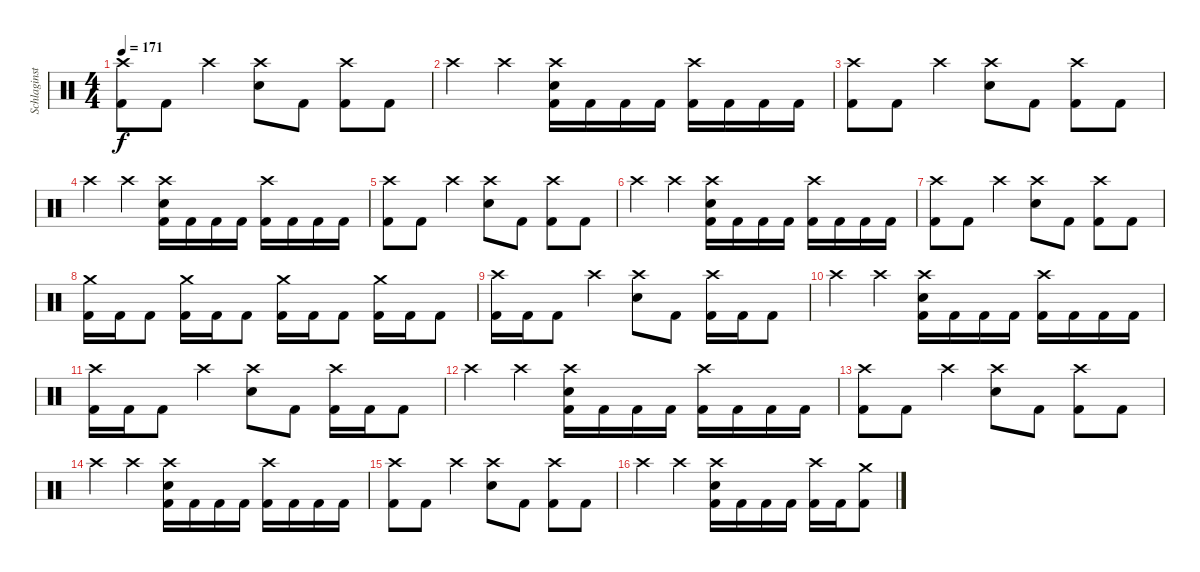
\track ("Schlaginstrumente - Auswahl" "Schlaginst") {instrument percussion}
\staff {score}
\articulation defaults
\ts (4 4)
\tempo 171
\clef neutral
\ks c
("Crash high (hit)" "Kick (hit) 2").8{dy f} "Kick (hit) 2".8 "Crash high (hit)".4 ("Crash high (hit)" "Snare (hit) 2").8 "Kick (hit) 2".8 ("Crash high (hit)" "Kick (hit) 2").8 "Kick (hit) 2".8 |
"Crash high (hit)".4 "Crash high (hit)".4 ("Crash high (hit)" "Snare (hit) 2" "Kick (hit) 2").16 "Kick (hit) 2".16 "Kick (hit) 2".16 "Kick (hit) 2".16 ("Crash high (hit)" "Kick (hit) 2").16 "Kick (hit) 2".16 "Kick (hit) 2".16 "Kick (hit) 2".16 |
("Crash high (hit)" "Kick (hit) 2").8 "Kick (hit) 2".8 "Crash high (hit)".4 ("Crash high (hit)" "Snare (hit) 2").8 "Kick (hit) 2".8 ("Crash high (hit)" "Kick (hit) 2").8 "Kick (hit) 2".8 |
"Crash high (hit)".4 "Crash high (hit)".4 ("Crash high (hit)" "Snare (hit) 2" "Kick (hit) 2").16 "Kick (hit) 2".16 "Kick (hit) 2".16 "Kick (hit) 2".16 ("Crash high (hit)" "Kick (hit) 2").16 "Kick (hit) 2".16 "Kick (hit) 2".16 "Kick (hit) 2".16 |
("Crash high (hit)" "Kick (hit) 2").8 "Kick (hit) 2".8 "Crash high (hit)".4 ("Crash high (hit)" "Snare (hit) 2").8 "Kick (hit) 2".8 ("Crash high (hit)" "Kick (hit) 2").8 "Kick (hit) 2".8 |
"Crash high (hit)".4 "Crash high (hit)".4 ("Crash high (hit)" "Snare (hit) 2" "Kick (hit) 2").16 "Kick (hit) 2".16 "Kick (hit) 2".16 "Kick (hit) 2".16 ("Crash high (hit)" "Kick (hit) 2").16 "Kick (hit) 2".16 "Kick (hit) 2".16 "Kick (hit) 2".16 |
("Crash high (hit)" "Kick (hit) 2").8 "Kick (hit) 2".8 "Crash high (hit)".4 ("Crash high (hit)" "Snare (hit) 2").8 "Kick (hit) 2".8 ("Crash high (hit)" "Kick (hit) 2").8 "Kick (hit) 2".8 |
("Crash medium (hit)" "Kick (hit) 2").16 "Kick (hit) 2".16 "Kick (hit) 2".8 ("Crash medium (hit)" "Kick (hit) 2").16 "Kick (hit) 2".16 "Kick (hit) 2".8 ("Crash medium (hit)" "Kick (hit) 2").16 "Kick (hit) 2".16 "Kick (hit) 2".8 ("Crash medium (hit)" "Kick (hit) 2").16 "Kick (hit) 2".16 "Kick (hit) 2".8 |
("Crash high (hit)" "Kick (hit) 2").16 "Kick (hit) 2".16 "Kick (hit) 2".8 "Crash high (hit)".4 ("Crash high (hit)" "Snare (hit) 2").8 "Kick (hit) 2".8 ("Crash high (hit)" "Kick (hit) 2").16 "Kick (hit) 2".16 "Kick (hit) 2".8 |
"Crash high (hit)".4 "Crash high (hit)".4 ("Crash high (hit)" "Snare (hit) 2" "Kick (hit) 2").16 "Kick (hit) 2".16 "Kick (hit) 2".16 "Kick (hit) 2".16 ("Crash high (hit)" "Kick (hit) 2").16 "Kick (hit) 2".16 "Kick (hit) 2".16 "Kick (hit) 2".16 |
("Crash high (hit)" "Kick (hit) 2").16 "Kick (hit) 2".16 "Kick (hit) 2".8 "Crash high (hit)".4 ("Crash high (hit)" "Snare (hit) 2").8 "Kick (hit) 2".8 ("Crash high (hit)" "Kick (hit) 2").16 "Kick (hit) 2".16 "Kick (hit) 2".8 |
"Crash high (hit)".4 "Crash high (hit)".4 ("Crash high (hit)" "Snare (hit) 2" "Kick (hit) 2").16 "Kick (hit) 2".16 "Kick (hit) 2".16 "Kick (hit) 2".16 ("Crash high (hit)" "Kick (hit) 2").16 "Kick (hit) 2".16 "Kick (hit) 2".16 "Kick (hit) 2".16 |
("Crash high (hit)" "Kick (hit) 2").8 "Kick (hit) 2".8 "Crash high (hit)".4 ("Crash high (hit)" "Snare (hit) 2").8 "Kick (hit) 2".8 ("Crash high (hit)" "Kick (hit) 2").8 "Kick (hit) 2".8 |
"Crash high (hit)".4 "Crash high (hit)".4 ("Crash high (hit)" "Snare (hit) 2" "Kick (hit) 2").16 "Kick (hit) 2".16 "Kick (hit) 2".16 "Kick (hit) 2".16 ("Crash high (hit)" "Kick (hit) 2").16 "Kick (hit) 2".16 "Kick (hit) 2".16 "Kick (hit) 2".16 |
("Crash high (hit)" "Kick (hit) 2").8 "Kick (hit) 2".8 "Crash high (hit)".4 ("Crash high (hit)" "Snare (hit) 2").8 "Kick (hit) 2".8 ("Crash high (hit)" "Kick (hit) 2").8 "Kick (hit) 2".8 |
"Crash high (hit)".4 "Crash high (hit)".4 ("Crash high (hit)" "Snare (hit) 2" "Kick (hit) 2").16 "Kick (hit) 2".16 "Kick (hit) 2".16 "Kick (hit) 2".16 ("Crash high (hit)" "Kick (hit) 2").16 "Kick (hit) 2".16 ("Crash medium (hit)" "Kick (hit) 2").8
